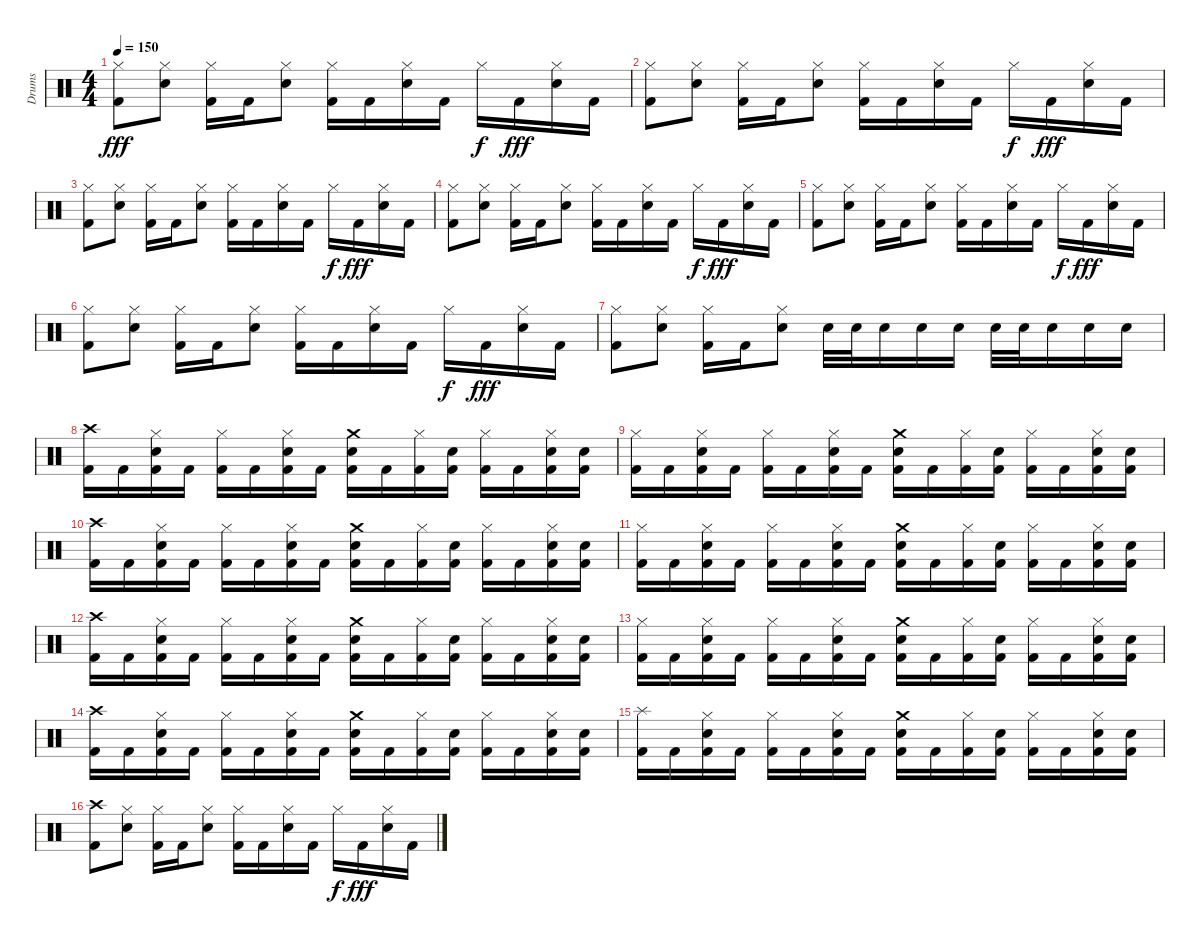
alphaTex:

\track ("Drums" "Drums") {instrument percussion}
\staff {score}
\articulation defaults
\ts (4 4)
\tempo 150
\clef neutral
\ks c
("Kick (hit) 2" "Hi-Hat (closed)").8{dy fff} ("Hi-Hat (closed)" "Snare (hit) 2").8 ("Kick (hit) 2" "Hi-Hat (closed)").16 "Kick (hit) 2".16 ("Hi-Hat (closed)" "Snare (hit) 2").8 ("Kick (hit) 2" "Hi-Hat (closed)").16 "Kick (hit) 2".16 ("Hi-Hat (closed)" "Snare (hit) 2").16 "Kick (hit) 2".16 "Hi-Hat (closed)".16{dy f} "Kick (hit) 2".16{dy fff} ("Hi-Hat (closed)" "Snare (hit) 2").16 "Kick (hit) 2".16 |
("Kick (hit) 2" "Hi-Hat (closed)").8 ("Hi-Hat (closed)" "Snare (hit) 2").8 ("Kick (hit) 2" "Hi-Hat (closed)").16 "Kick (hit) 2".16 ("Hi-Hat (closed)" "Snare (hit) 2").8 ("Kick (hit) 2" "Hi-Hat (closed)").16 "Kick (hit) 2".16 ("Hi-Hat (closed)" "Snare (hit) 2").16 "Kick (hit) 2".16 "Hi-Hat (closed)".16{dy f} "Kick (hit) 2".16{dy fff} ("Hi-Hat (closed)" "Snare (hit) 2").16 "Kick (hit) 2".16 |
("Kick (hit) 2" "Hi-Hat (closed)").8 ("Hi-Hat (closed)" "Snare (hit) 2").8 ("Kick (hit) 2" "Hi-Hat (closed)").16 "Kick (hit) 2".16 ("Hi-Hat (closed)" "Snare (hit) 2").8 ("Kick (hit) 2" "Hi-Hat (closed)").16 "Kick (hit) 2".16 ("Hi-Hat (closed)" "Snare (hit) 2").16 "Kick (hit) 2".16 "Hi-Hat (closed)".16{dy f} "Kick (hit) 2".16{dy fff} ("Hi-Hat (closed)" "Snare (hit) 2").16 "Kick (hit) 2".16 |
("Kick (hit) 2" "Hi-Hat (closed)").8 ("Hi-Hat (closed)" "Snare (hit) 2").8 ("Kick (hit) 2" "Hi-Hat (closed)").16 "Kick (hit) 2".16 ("Hi-Hat (closed)" "Snare (hit) 2").8 ("Kick (hit) 2" "Hi-Hat (closed)").16 "Kick (hit) 2".16 ("Hi-Hat (closed)" "Snare (hit) 2").16 "Kick (hit) 2".16 "Hi-Hat (closed)".16{dy f} "Kick (hit) 2".16{dy fff} ("Hi-Hat (closed)" "Snare (hit) 2").16 "Kick (hit) 2".16 |
("Kick (hit) 2" "Hi-Hat (closed)").8 ("Hi-Hat (closed)" "Snare (hit) 2").8 ("Kick (hit) 2" "Hi-Hat (closed)").16 "Kick (hit) 2".16 ("Hi-Hat (closed)" "Snare (hit) 2").8 ("Kick (hit) 2" "Hi-Hat (closed)").16 "Kick (hit) 2".16 ("Hi-Hat (closed)" "Snare (hit) 2").16 "Kick (hit) 2".16 "Hi-Hat (closed)".16{dy f} "Kick (hit) 2".16{dy fff} ("Hi-Hat (closed)" "Snare (hit) 2").16 "Kick (hit) 2".16 |
("Kick (hit) 2" "Hi-Hat (closed)").8 ("Hi-Hat (closed)" "Snare (hit) 2").8 ("Kick (hit) 2" "Hi-Hat (closed)").16 "Kick (hit) 2".16 ("Hi-Hat (closed)" "Snare (hit) 2").8 ("Kick (hit) 2" "Hi-Hat (closed)").16 "Kick (hit) 2".16 ("Hi-Hat (closed)" "Snare (hit) 2").16 "Kick (hit) 2".16 "Hi-Hat (closed)".16{dy f} "Kick (hit) 2".16{dy fff} ("Hi-Hat (closed)" "Snare (hit) 2").16 "Kick (hit) 2".16 |
("Kick (hit) 2" "Hi-Hat (closed)").8 ("Hi-Hat (closed)" "Snare (hit) 2").8 ("Kick (hit) 2" "Hi-Hat (closed)").16 "Kick (hit) 2".16 ("Hi-Hat (closed)" "Snare (hit) 2").8 "Snare (hit) 2".32 "Snare (hit) 2".32 "Snare (hit) 2".16 "Snare (hit) 2".16 "Snare (hit) 2".16 "Snare (hit) 2".32 "Snare (hit) 2".32 "Snare (hit) 2".16 "Snare (hit) 2".16 "Snare (hit) 2".16 |
("Kick (hit) 2" "Crash high (hit)").16 "Kick (hit) 2".16 ("Kick (hit) 2" "Hi-Hat (closed)" "Snare (hit) 2").16 "Kick (hit) 2".16 ("Kick (hit) 2" "Hi-Hat (closed)").16 "Kick (hit) 2".16 ("Kick (hit) 2" "Hi-Hat (closed)" "Snare (hit) 2").16 "Kick (hit) 2".16 ("Kick (hit) 2" "Crash medium (hit)" "Snare (hit) 2").16 "Kick (hit) 2".16 ("Kick (hit) 2" "Hi-Hat (closed)").16 ("Kick (hit) 2" "Snare (hit) 2").16 ("Kick (hit) 2" "Hi-Hat (closed)").16 "Kick (hit) 2".16 ("Kick (hit) 2" "Hi-Hat (closed)" "Snare (hit) 2").16 ("Kick (hit) 2" "Snare (hit) 2").16 |
("Kick (hit) 2" "Hi-Hat (closed)").16 "Kick (hit) 2".16 ("Kick (hit) 2" "Hi-Hat (closed)" "Snare (hit) 2").16 "Kick (hit) 2".16 ("Kick (hit) 2" "Hi-Hat (closed)").16 "Kick (hit) 2".16 ("Kick (hit) 2" "Hi-Hat (closed)" "Snare (hit) 2").16 "Kick (hit) 2".16 ("Kick (hit) 2" "Crash medium (hit)" "Snare (hit) 2").16 "Kick (hit) 2".16 ("Kick (hit) 2" "Hi-Hat (closed)").16 ("Kick (hit) 2" "Snare (hit) 2").16 ("Kick (hit) 2" "Hi-Hat (closed)").16 "Kick (hit) 2".16 ("Kick (hit) 2" "Hi-Hat (closed)" "Snare (hit) 2").16 ("Kick (hit) 2" "Snare (hit) 2").16 |
("Kick (hit) 2" "Crash high (hit)").16 "Kick (hit) 2".16 ("Kick (hit) 2" "Hi-Hat (closed)" "Snare (hit) 2").16 "Kick (hit) 2".16 ("Kick (hit) 2" "Hi-Hat (closed)").16 "Kick (hit) 2".16 ("Kick (hit) 2" "Hi-Hat (closed)" "Snare (hit) 2").16 "Kick (hit) 2".16 ("Kick (hit) 2" "Crash medium (hit)" "Snare (hit) 2").16 "Kick (hit) 2".16 ("Kick (hit) 2" "Hi-Hat (closed)").16 ("Kick (hit) 2" "Snare (hit) 2").16 ("Kick (hit) 2" "Hi-Hat (closed)").16 "Kick (hit) 2".16 ("Kick (hit) 2" "Hi-Hat (closed)" "Snare (hit) 2").16 ("Kick (hit) 2" "Snare (hit) 2").16 |
("Kick (hit) 2" "Hi-Hat (closed)").16 "Kick (hit) 2".16 ("Kick (hit) 2" "Hi-Hat (closed)" "Snare (hit) 2").16 "Kick (hit) 2".16 ("Kick (hit) 2" "Hi-Hat (closed)").16 "Kick (hit) 2".16 ("Kick (hit) 2" "Hi-Hat (closed)" "Snare (hit) 2").16 "Kick (hit) 2".16 ("Kick (hit) 2" "Crash medium (hit)" "Snare (hit) 2").16 "Kick (hit) 2".16 ("Kick (hit) 2" "Hi-Hat (closed)").16 ("Kick (hit) 2" "Snare (hit) 2").16 ("Kick (hit) 2" "Hi-Hat (closed)").16 "Kick (hit) 2".16 ("Kick (hit) 2" "Hi-Hat (closed)" "Snare (hit) 2").16 ("Kick (hit) 2" "Snare (hit) 2").16 |
("Kick (hit) 2" "Crash high (hit)").16 "Kick (hit) 2".16 ("Kick (hit) 2" "Hi-Hat (closed)" "Snare (hit) 2").16 "Kick (hit) 2".16 ("Kick (hit) 2" "Hi-Hat (closed)").16 "Kick (hit) 2".16 ("Kick (hit) 2" "Hi-Hat (closed)" "Snare (hit) 2").16 "Kick (hit) 2".16 ("Kick (hit) 2" "Crash medium (hit)" "Snare (hit) 2").16 "Kick (hit) 2".16 ("Kick (hit) 2" "Hi-Hat (closed)").16 ("Kick (hit) 2" "Snare (hit) 2").16 ("Kick (hit) 2" "Hi-Hat (closed)").16 "Kick (hit) 2".16 ("Kick (hit) 2" "Hi-Hat (closed)" "Snare (hit) 2").16 ("Kick (hit) 2" "Snare (hit) 2").16 |
("Kick (hit) 2" "Hi-Hat (closed)").16 "Kick (hit) 2".16 ("Kick (hit) 2" "Hi-Hat (closed)" "Snare (hit) 2").16 "Kick (hit) 2".16 ("Kick (hit) 2" "Hi-Hat (closed)").16 "Kick (hit) 2".16 ("Kick (hit) 2" "Hi-Hat (closed)" "Snare (hit) 2").16 "Kick (hit) 2".16 ("Kick (hit) 2" "Crash medium (hit)" "Snare (hit) 2").16 "Kick (hit) 2".16 ("Kick (hit) 2" "Hi-Hat (closed)").16 ("Kick (hit) 2" "Snare (hit) 2").16 ("Kick (hit) 2" "Hi-Hat (closed)").16 "Kick (hit) 2".16 ("Kick (hit) 2" "Hi-Hat (closed)" "Snare (hit) 2").16 ("Kick (hit) 2" "Snare (hit) 2").16 |
("Kick (hit) 2" "Crash high (hit)").16 "Kick (hit) 2".16 ("Kick (hit) 2" "Hi-Hat (closed)" "Snare (hit) 2").16 "Kick (hit) 2".16 ("Kick (hit) 2" "Hi-Hat (closed)").16 "Kick (hit) 2".16 ("Kick (hit) 2" "Hi-Hat (closed)" "Snare (hit) 2").16 "Kick (hit) 2".16 ("Kick (hit) 2" "Crash medium (hit)" "Snare (hit) 2").16 "Kick (hit) 2".16 ("Kick (hit) 2" "Hi-Hat (closed)").16 ("Kick (hit) 2" "Snare (hit) 2").16 ("Kick (hit) 2" "Hi-Hat (closed)").16 "Kick (hit) 2".16 ("Kick (hit) 2" "Hi-Hat (closed)" "Snare (hit) 2").16 ("Kick (hit) 2" "Snare (hit) 2").16 |
("Kick (hit) 2" "Splash (hit)").16 "Kick (hit) 2".16 ("Kick (hit) 2" "Hi-Hat (closed)" "Snare (hit) 2").16 "Kick (hit) 2".16 ("Kick (hit) 2" "Hi-Hat (closed)").16 "Kick (hit) 2".16 ("Kick (hit) 2" "Hi-Hat (closed)" "Snare (hit) 2").16 "Kick (hit) 2".16 ("Kick (hit) 2" "Crash medium (hit)" "Snare (hit) 2").16 "Kick (hit) 2".16 ("Kick (hit) 2" "Hi-Hat (closed)").16 ("Kick (hit) 2" "Snare (hit) 2").16 ("Kick (hit) 2" "Hi-Hat (closed)").16 "Kick (hit) 2".16 ("Kick (hit) 2" "Hi-Hat (closed)" "Snare (hit) 2").16 ("Kick (hit) 2" "Snare (hit) 2").16 |
("Kick (hit) 2" "Crash high (hit)").8 ("Hi-Hat (closed)" "Snare (hit) 2").8 ("Kick (hit) 2" "Hi-Hat (closed)").16 "Kick (hit) 2".16 ("Hi-Hat (closed)" "Snare (hit) 2").8 ("Kick (hit) 2" "Hi-Hat (closed)").16 "Kick (hit) 2".16 ("Hi-Hat (closed)" "Snare (hit) 2").16 "Kick (hit) 2".16 "Hi-Hat (closed)".16{dy f} "Kick (hit) 2".16{dy fff} ("Hi-Hat (closed)" "Snare (hit) 2").16 "Kick (hit) 2".16
